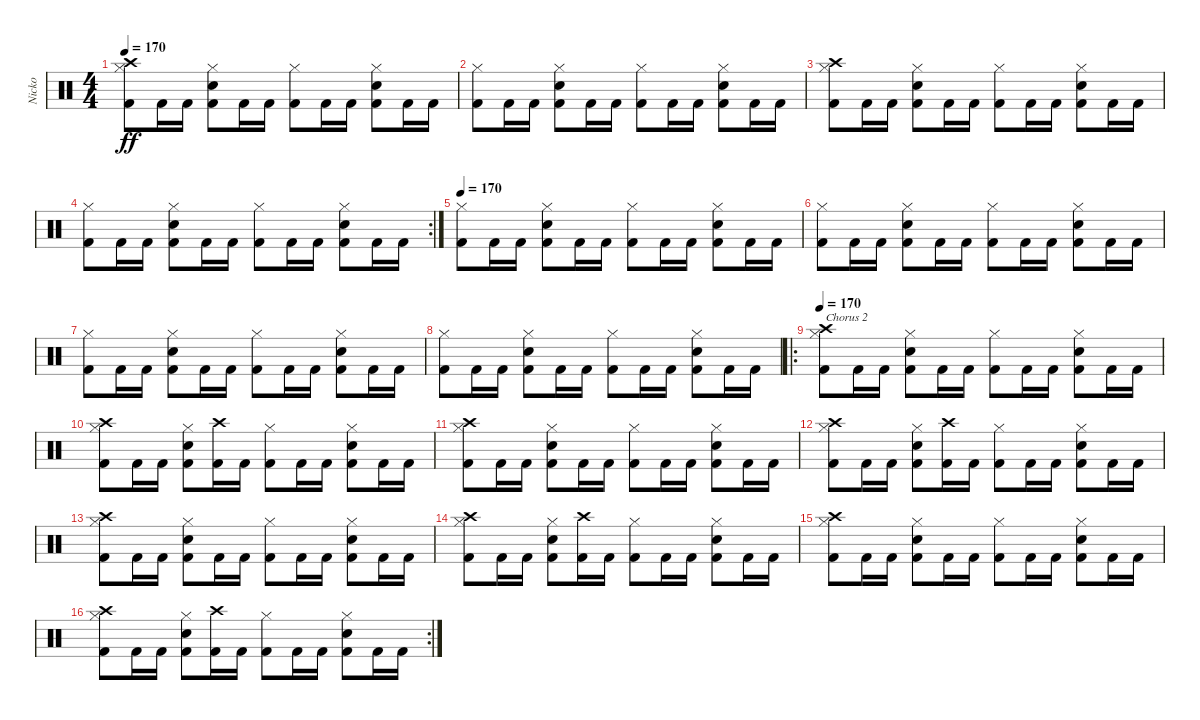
\track ("Nicko" "Nicko") {instrument percussion}
\staff {score}
\articulation defaults
\ts (4 4)
\tempo 170
\clef neutral
\ks c
("Crash high (hit)" "Hi-Hat (closed)" "Kick (hit) 2").8{dy ff} "Kick (hit) 2".16 "Kick (hit) 2".16 ("Hi-Hat (closed)" "Snare (hit) 2" "Kick (hit) 2").8 "Kick (hit) 2".16 "Kick (hit) 2".16 ("Hi-Hat (closed)" "Kick (hit) 2").8 "Kick (hit) 2".16 "Kick (hit) 2".16 ("Hi-Hat (closed)" "Snare (hit) 2" "Kick (hit) 2").8 "Kick (hit) 2".16 "Kick (hit) 2".16 |
("Hi-Hat (closed)" "Kick (hit) 2").8 "Kick (hit) 2".16 "Kick (hit) 2".16 ("Hi-Hat (closed)" "Snare (hit) 2" "Kick (hit) 2").8 "Kick (hit) 2".16 "Kick (hit) 2".16 ("Hi-Hat (closed)" "Kick (hit) 2").8 "Kick (hit) 2".16 "Kick (hit) 2".16 ("Hi-Hat (closed)" "Snare (hit) 2" "Kick (hit) 2").8 "Kick (hit) 2".16 "Kick (hit) 2".16 |
("Crash high (hit)" "Hi-Hat (closed)" "Kick (hit) 2").8 "Kick (hit) 2".16 "Kick (hit) 2".16 ("Hi-Hat (closed)" "Snare (hit) 2" "Kick (hit) 2").8 "Kick (hit) 2".16 "Kick (hit) 2".16 ("Hi-Hat (closed)" "Kick (hit) 2").8 "Kick (hit) 2".16 "Kick (hit) 2".16 ("Hi-Hat (closed)" "Snare (hit) 2" "Kick (hit) 2").8 "Kick (hit) 2".16 "Kick (hit) 2".16 |
\rc 2
("Hi-Hat (closed)" "Kick (hit) 2").8 "Kick (hit) 2".16 "Kick (hit) 2".16 ("Hi-Hat (closed)" "Snare (hit) 2" "Kick (hit) 2").8 "Kick (hit) 2".16 "Kick (hit) 2".16 ("Hi-Hat (closed)" "Kick (hit) 2").8 "Kick (hit) 2".16 "Kick (hit) 2".16 ("Hi-Hat (closed)" "Snare (hit) 2" "Kick (hit) 2").8 "Kick (hit) 2".16 "Kick (hit) 2".16 |
\tempo 170
("Hi-Hat (closed)" "Kick (hit) 2").8 "Kick (hit) 2".16 "Kick (hit) 2".16 ("Hi-Hat (closed)" "Snare (hit) 2" "Kick (hit) 2").8 "Kick (hit) 2".16 "Kick (hit) 2".16 ("Hi-Hat (closed)" "Kick (hit) 2").8 "Kick (hit) 2".16 "Kick (hit) 2".16 ("Hi-Hat (closed)" "Snare (hit) 2" "Kick (hit) 2").8 "Kick (hit) 2".16 "Kick (hit) 2".16 |
("Hi-Hat (closed)" "Kick (hit) 2").8 "Kick (hit) 2".16 "Kick (hit) 2".16 ("Hi-Hat (closed)" "Snare (hit) 2" "Kick (hit) 2").8 "Kick (hit) 2".16 "Kick (hit) 2".16 ("Hi-Hat (closed)" "Kick (hit) 2").8 "Kick (hit) 2".16 "Kick (hit) 2".16 ("Hi-Hat (closed)" "Snare (hit) 2" "Kick (hit) 2").8 "Kick (hit) 2".16 "Kick (hit) 2".16 |
("Hi-Hat (closed)" "Kick (hit) 2").8 "Kick (hit) 2".16 "Kick (hit) 2".16 ("Hi-Hat (closed)" "Snare (hit) 2" "Kick (hit) 2").8 "Kick (hit) 2".16 "Kick (hit) 2".16 ("Hi-Hat (closed)" "Kick (hit) 2").8 "Kick (hit) 2".16 "Kick (hit) 2".16 ("Hi-Hat (closed)" "Snare (hit) 2" "Kick (hit) 2").8 "Kick (hit) 2".16 "Kick (hit) 2".16 |
("Hi-Hat (closed)" "Kick (hit) 2").8 "Kick (hit) 2".16 "Kick (hit) 2".16 ("Hi-Hat (closed)" "Snare (hit) 2" "Kick (hit) 2").8 "Kick (hit) 2".16 "Kick (hit) 2".16 ("Hi-Hat (closed)" "Kick (hit) 2").8 "Kick (hit) 2".16 "Kick (hit) 2".16 ("Hi-Hat (closed)" "Snare (hit) 2" "Kick (hit) 2").8 "Kick (hit) 2".16 "Kick (hit) 2".16 |
\ro
\tempo 170
("Crash high (hit)" "Hi-Hat (closed)" "Kick (hit) 2").8{txt "Chorus 2"} "Kick (hit) 2".16 "Kick (hit) 2".16 ("Hi-Hat (closed)" "Snare (hit) 2" "Kick (hit) 2").8 "Kick (hit) 2".16 "Kick (hit) 2".16 ("Hi-Hat (closed)" "Kick (hit) 2").8 "Kick (hit) 2".16 "Kick (hit) 2".16 ("Hi-Hat (closed)" "Snare (hit) 2" "Kick (hit) 2").8 "Kick (hit) 2".16 "Kick (hit) 2".16 |
("Crash high (hit)" "Hi-Hat (closed)" "Kick (hit) 2").8 "Kick (hit) 2".16 "Kick (hit) 2".16 ("Hi-Hat (closed)" "Snare (hit) 2" "Kick (hit) 2").8 ("Crash high (hit)" "Kick (hit) 2").16 "Kick (hit) 2".16 ("Hi-Hat (closed)" "Kick (hit) 2").8 "Kick (hit) 2".16 "Kick (hit) 2".16 ("Hi-Hat (closed)" "Snare (hit) 2" "Kick (hit) 2").8 "Kick (hit) 2".16 "Kick (hit) 2".16 |
("Crash high (hit)" "Hi-Hat (closed)" "Kick (hit) 2").8 "Kick (hit) 2".16 "Kick (hit) 2".16 ("Hi-Hat (closed)" "Snare (hit) 2" "Kick (hit) 2").8 "Kick (hit) 2".16 "Kick (hit) 2".16 ("Hi-Hat (closed)" "Kick (hit) 2").8 "Kick (hit) 2".16 "Kick (hit) 2".16 ("Hi-Hat (closed)" "Snare (hit) 2" "Kick (hit) 2").8 "Kick (hit) 2".16 "Kick (hit) 2".16 |
("Crash high (hit)" "Hi-Hat (closed)" "Kick (hit) 2").8 "Kick (hit) 2".16 "Kick (hit) 2".16 ("Hi-Hat (closed)" "Snare (hit) 2" "Kick (hit) 2").8 ("Crash high (hit)" "Kick (hit) 2").16 "Kick (hit) 2".16 ("Hi-Hat (closed)" "Kick (hit) 2").8 "Kick (hit) 2".16 "Kick (hit) 2".16 ("Hi-Hat (closed)" "Snare (hit) 2" "Kick (hit) 2").8 "Kick (hit) 2".16 "Kick (hit) 2".16 |
("Crash high (hit)" "Hi-Hat (closed)" "Kick (hit) 2").8 "Kick (hit) 2".16 "Kick (hit) 2".16 ("Hi-Hat (closed)" "Snare (hit) 2" "Kick (hit) 2").8 "Kick (hit) 2".16 "Kick (hit) 2".16 ("Hi-Hat (closed)" "Kick (hit) 2").8 "Kick (hit) 2".16 "Kick (hit) 2".16 ("Hi-Hat (closed)" "Snare (hit) 2" "Kick (hit) 2").8 "Kick (hit) 2".16 "Kick (hit) 2".16 |
("Crash high (hit)" "Hi-Hat (closed)" "Kick (hit) 2").8 "Kick (hit) 2".16 "Kick (hit) 2".16 ("Hi-Hat (closed)" "Snare (hit) 2" "Kick (hit) 2").8 ("Crash high (hit)" "Kick (hit) 2").16 "Kick (hit) 2".16 ("Hi-Hat (closed)" "Kick (hit) 2").8 "Kick (hit) 2".16 "Kick (hit) 2".16 ("Hi-Hat (closed)" "Snare (hit) 2" "Kick (hit) 2").8 "Kick (hit) 2".16 "Kick (hit) 2".16 |
("Crash high (hit)" "Hi-Hat (closed)" "Kick (hit) 2").8 "Kick (hit) 2".16 "Kick (hit) 2".16 ("Hi-Hat (closed)" "Snare (hit) 2" "Kick (hit) 2").8 "Kick (hit) 2".16 "Kick (hit) 2".16 ("Hi-Hat (closed)" "Kick (hit) 2").8 "Kick (hit) 2".16 "Kick (hit) 2".16 ("Hi-Hat (closed)" "Snare (hit) 2" "Kick (hit) 2").8 "Kick (hit) 2".16 "Kick (hit) 2".16 |
\rc 2
("Crash high (hit)" "Hi-Hat (closed)" "Kick (hit) 2").8 "Kick (hit) 2".16 "Kick (hit) 2".16 ("Hi-Hat (closed)" "Snare (hit) 2" "Kick (hit) 2").8 ("Crash high (hit)" "Kick (hit) 2").16 "Kick (hit) 2".16 ("Hi-Hat (closed)" "Kick (hit) 2").8 "Kick (hit) 2".16 "Kick (hit) 2".16 ("Hi-Hat (closed)" "Snare (hit) 2" "Kick (hit) 2").8 "Kick (hit) 2".16 "Kick (hit) 2".16
